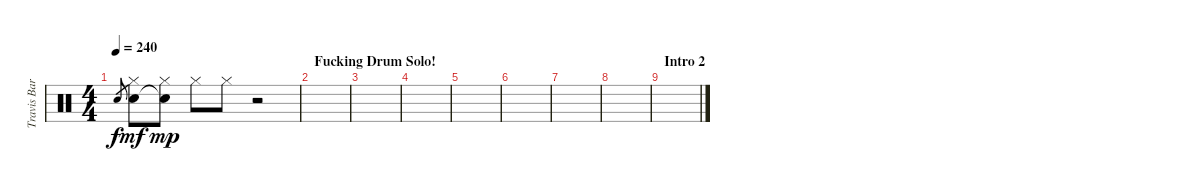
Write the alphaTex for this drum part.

\track ("Travis Barker - Drums 2" "Travis Bar") {instrument percussion}
\staff {score}
\articulation defaults
\ts (4 4)
\tempo 240
\clef neutral
\ks c "Electric Snare (hit)".8{gr dy f}
("Hi-Hat (closed)" "Electric Snare (hit)").8{dy mf} ("Hi-Hat (closed)" "Snare (hit)"{t}).8{dy mp} "Hi-Hat (closed)".8 "Hi-Hat (closed)".8 r.2 |
\section ("" "Fucking Drum Solo!")
|
|
|
|
|
|
|
\section ("" "Intro 2")
